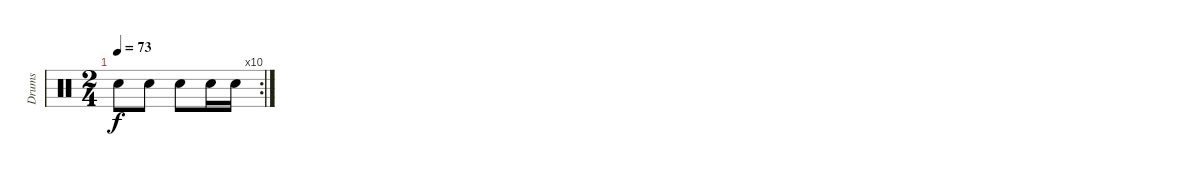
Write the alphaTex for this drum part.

\track ("Drums" "Drums") {instrument percussion}
\staff {score}
\articulation defaults
\rc 10
\ts (2 4)
\tempo 73
\clef neutral
\ks c "Snare (hit) 2".8{dy f} "Snare (hit) 2".8 "Snare (hit) 2".8 "Electric Snare (hit)".16 "Electric Snare (hit)".16
